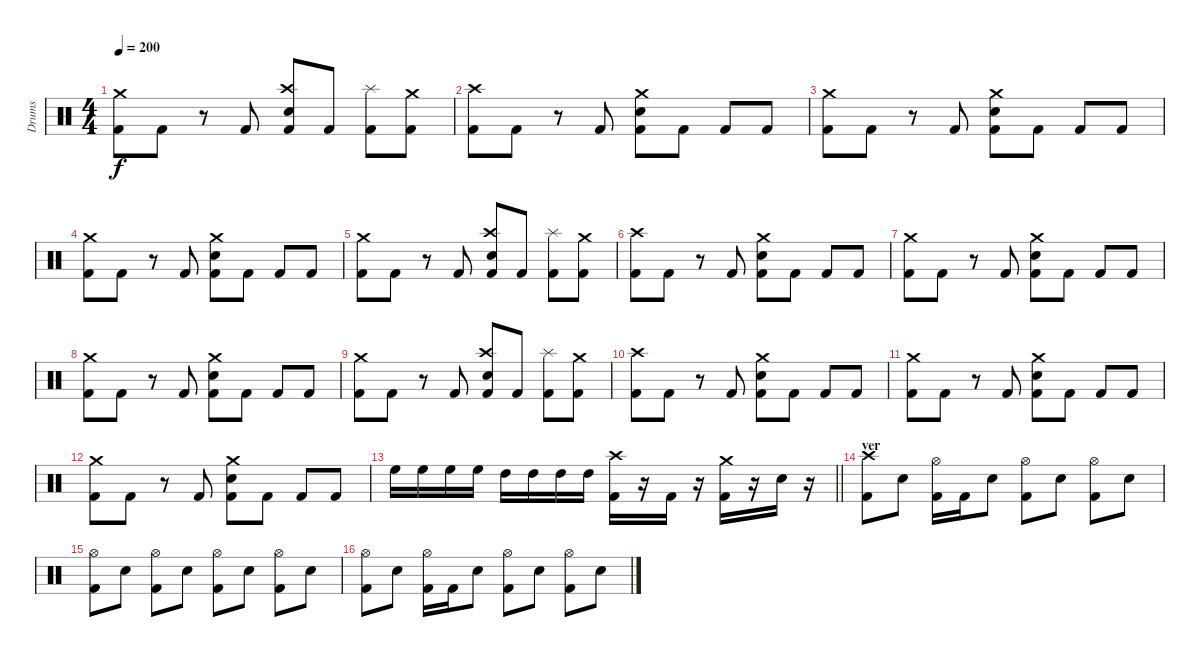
\track ("Drums" "Drums") {instrument percussion}
\staff {score}
\articulation defaults
\ts (4 4)
\tempo 200
\clef neutral
\ks c
("Crash medium (hit)" "Kick (hit) 2").8{dy f} "Kick (hit) 2".8 r.8 "Kick (hit) 2".8 ("Crash high (hit)" "Electric Snare (hit)" "Kick (hit) 2").8 "Kick (hit) 2".8 ("Splash (hit)" "Kick (hit) 2").8 ("Crash medium (hit)" "Kick (hit) 2").8 |
("Crash high (hit)" "Kick (hit) 2").8 "Kick (hit) 2".8 r.8 "Kick (hit) 2".8 ("Crash medium (hit)" "Electric Snare (hit)" "Kick (hit) 2").8 "Kick (hit) 2".8 "Kick (hit) 2".8 "Kick (hit) 2".8 |
("Crash medium (hit)" "Kick (hit) 2").8 "Kick (hit) 2".8 r.8 "Kick (hit) 2".8 ("Crash medium (hit)" "Electric Snare (hit)" "Kick (hit) 2").8 "Kick (hit) 2".8 "Kick (hit) 2".8 "Kick (hit) 2".8 |
("Crash medium (hit)" "Kick (hit) 2").8 "Kick (hit) 2".8 r.8 "Kick (hit) 2".8 ("Crash medium (hit)" "Electric Snare (hit)" "Kick (hit) 2").8 "Kick (hit) 2".8 "Kick (hit) 2".8 "Kick (hit) 2".8 |
("Crash medium (hit)" "Kick (hit) 2").8 "Kick (hit) 2".8 r.8 "Kick (hit) 2".8 ("Crash high (hit)" "Electric Snare (hit)" "Kick (hit) 2").8 "Kick (hit) 2".8 ("Splash (hit)" "Kick (hit) 2").8 ("Crash medium (hit)" "Kick (hit) 2").8 |
("Crash high (hit)" "Kick (hit) 2").8 "Kick (hit) 2".8 r.8 "Kick (hit) 2".8 ("Crash medium (hit)" "Electric Snare (hit)" "Kick (hit) 2").8 "Kick (hit) 2".8 "Kick (hit) 2".8 "Kick (hit) 2".8 |
("Crash medium (hit)" "Kick (hit) 2").8 "Kick (hit) 2".8 r.8 "Kick (hit) 2".8 ("Crash medium (hit)" "Electric Snare (hit)" "Kick (hit) 2").8 "Kick (hit) 2".8 "Kick (hit) 2".8 "Kick (hit) 2".8 |
("Crash medium (hit)" "Kick (hit) 2").8 "Kick (hit) 2".8 r.8 "Kick (hit) 2".8 ("Crash medium (hit)" "Electric Snare (hit)" "Kick (hit) 2").8 "Kick (hit) 2".8 "Kick (hit) 2".8 "Kick (hit) 2".8 |
("Crash medium (hit)" "Kick (hit) 2").8 "Kick (hit) 2".8 r.8 "Kick (hit) 2".8 ("Crash high (hit)" "Electric Snare (hit)" "Kick (hit) 2").8 "Kick (hit) 2".8 ("Splash (hit)" "Kick (hit) 2").8 ("Crash medium (hit)" "Kick (hit) 2").8 |
("Crash high (hit)" "Kick (hit) 2").8 "Kick (hit) 2".8 r.8 "Kick (hit) 2".8 ("Crash medium (hit)" "Electric Snare (hit)" "Kick (hit) 2").8 "Kick (hit) 2".8 "Kick (hit) 2".8 "Kick (hit) 2".8 |
("Crash medium (hit)" "Kick (hit) 2").8 "Kick (hit) 2".8 r.8 "Kick (hit) 2".8 ("Crash medium (hit)" "Electric Snare (hit)" "Kick (hit) 2").8 "Kick (hit) 2".8 "Kick (hit) 2".8 "Kick (hit) 2".8 |
("Crash medium (hit)" "Kick (hit) 2").8 "Kick (hit) 2".8 r.8 "Kick (hit) 2".8 ("Crash medium (hit)" "Electric Snare (hit)" "Kick (hit) 2").8 "Kick (hit) 2".8 "Kick (hit) 2".8 "Kick (hit) 2".8 |
\barLineRight lightlight "High Floor Tom (hit)".16 "High Floor Tom (hit)".16 "High Floor Tom (hit)".16 "High Floor Tom (hit)".16 "High Tom (hit)".16 "High Tom (hit)".16 "High Tom (hit)".16 "High Tom (hit)".16
("Crash high (hit)" "Kick (hit) 2").16 r.16 "Kick (hit) 2".16 r.16 ("Crash medium (hit)" "Kick (hit) 2").16 r.16 "Electric Snare (hit)".16 r.16 |
\section ("" "ver")
("Crash high (hit)" "Kick (hit) 2").8 "Electric Snare (hit)".8 ("Hi-Hat (open)" "Kick (hit) 2").16 "Kick (hit) 2".16 "Electric Snare (hit)".8 ("Hi-Hat (open)" "Kick (hit) 2").8 "Electric Snare (hit)".8 ("Hi-Hat (open)" "Kick (hit) 2").8 "Electric Snare (hit)".8 |
("Hi-Hat (open)" "Kick (hit) 2").8 "Electric Snare (hit)".8 ("Hi-Hat (open)" "Kick (hit) 2").8 "Electric Snare (hit)".8 ("Hi-Hat (open)" "Kick (hit) 2").8 "Electric Snare (hit)".8 ("Hi-Hat (open)" "Kick (hit) 2").8 "Electric Snare (hit)".8 |
("Hi-Hat (open)" "Kick (hit) 2").8 "Electric Snare (hit)".8 ("Hi-Hat (open)" "Kick (hit) 2").16 "Kick (hit) 2".16 "Electric Snare (hit)".8 ("Hi-Hat (open)" "Kick (hit) 2").8 "Electric Snare (hit)".8 ("Hi-Hat (open)" "Kick (hit) 2").8 "Electric Snare (hit)".8
